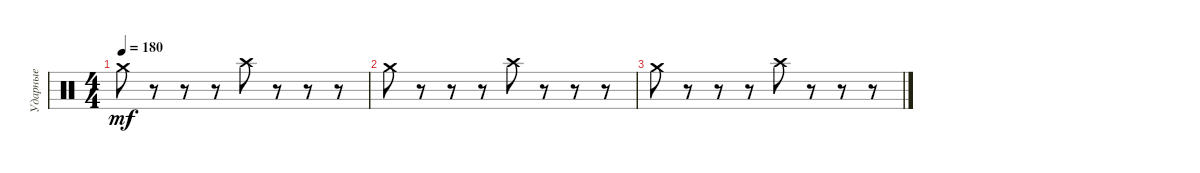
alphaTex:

\track ("Ударные" "Ударные") {instrument percussion}
\staff {score}
\articulation defaults
\ts (4 4)
\tempo 180
\clef neutral
\ks c "Crash medium (hit)".8{dy mf}
r.8 r.8 r.8 "Crash high (hit)".8 r.8 r.8 r.8 |
"Crash medium (hit)".8 r.8 r.8 r.8 "Crash high (hit)".8 r.8 r.8 r.8 |
"Crash medium (hit)".8 r.8 r.8 r.8 "Crash high (hit)".8 r.8 r.8 r.8
